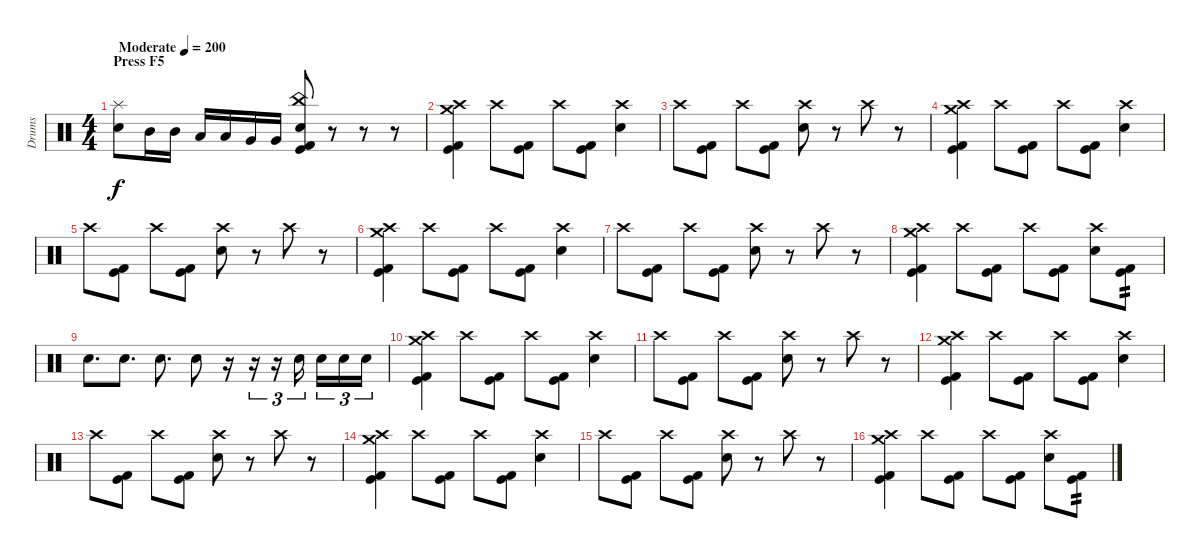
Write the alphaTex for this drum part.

\track ("Drums" "Drums") {instrument percussion}
\staff {score}
\articulation defaults
\ts (4 4)
\section ("" "Press F5")
\tempo (200 "Moderate")
\clef neutral
\ks c
("Splash (hit)" "Electric Snare (hit)").8{dy f} "Mid Tom (hit)".16 "Mid Tom (hit)".16 "Low Tom (hit)".16 "Low Tom (hit)".16 "Very Low Tom (hit)".16 "Very Low Tom (hit)".16 ("China (hit)" "Electric Snare (hit)" "Kick (hit) 2" "Kick (hit)").8 r.8 r.8 r.8 |
("Crash medium (hit)" "Crash high (hit)" "Kick (hit) 2" "Kick (hit)").4 "Crash high (hit)".8 ("Kick (hit) 2" "Kick (hit)").8 "Crash high (hit)".8 ("Kick (hit) 2" "Kick (hit)").8 ("Crash high (hit)" "Electric Snare (hit)").4 |
"Crash high (hit)".8 ("Kick (hit) 2" "Kick (hit)").8 "Crash high (hit)".8 ("Kick (hit) 2" "Kick (hit)").8 ("Crash high (hit)" "Electric Snare (hit)").8 r.8 "Crash high (hit)".8 r.8 |
("Crash medium (hit)" "Crash high (hit)" "Kick (hit) 2" "Kick (hit)").4 "Crash high (hit)".8 ("Kick (hit) 2" "Kick (hit)").8 "Crash high (hit)".8 ("Kick (hit) 2" "Kick (hit)").8 ("Crash high (hit)" "Electric Snare (hit)").4 |
"Crash high (hit)".8 ("Kick (hit) 2" "Kick (hit)").8 "Crash high (hit)".8 ("Kick (hit) 2" "Kick (hit)").8 ("Crash high (hit)" "Electric Snare (hit)").8 r.8 "Crash high (hit)".8 r.8 |
("Crash medium (hit)" "Crash high (hit)" "Kick (hit) 2" "Kick (hit)").4 "Crash high (hit)".8 ("Kick (hit) 2" "Kick (hit)").8 "Crash high (hit)".8 ("Kick (hit) 2" "Kick (hit)").8 ("Crash high (hit)" "Electric Snare (hit)").4 |
"Crash high (hit)".8 ("Kick (hit) 2" "Kick (hit)").8 "Crash high (hit)".8 ("Kick (hit) 2" "Kick (hit)").8 ("Crash high (hit)" "Electric Snare (hit)").8 r.8 "Crash high (hit)".8 r.8 |
("Crash medium (hit)" "Crash high (hit)" "Kick (hit) 2" "Kick (hit)").4 "Crash high (hit)".8 ("Kick (hit) 2" "Kick (hit)").8 "Crash high (hit)".8 ("Kick (hit) 2" "Kick (hit)").8 ("Crash high (hit)" "Electric Snare (hit)").8 ("Kick (hit) 2" "Kick (hit)").8{tp 2} |
"Electric Snare (hit)".8{d} "Electric Snare (hit)".8{d} "Electric Snare (hit)".8{d} "Electric Snare (hit)".8 r.16 r.16{tu (3 2)} r.16{tu (3 2)} "Electric Snare (hit)".16{tu (3 2) beam splitsecondary} "Electric Snare (hit)".16{tu (3 2)} "Electric Snare (hit)".16{tu (3 2)} "Electric Snare (hit)".16{tu (3 2)} |
("Crash medium (hit)" "Crash high (hit)" "Kick (hit) 2" "Kick (hit)").4 "Crash high (hit)".8 ("Kick (hit) 2" "Kick (hit)").8 "Crash high (hit)".8 ("Kick (hit) 2" "Kick (hit)").8 ("Crash high (hit)" "Electric Snare (hit)").4 |
"Crash high (hit)".8 ("Kick (hit) 2" "Kick (hit)").8 "Crash high (hit)".8 ("Kick (hit) 2" "Kick (hit)").8 ("Crash high (hit)" "Electric Snare (hit)").8 r.8 "Crash high (hit)".8 r.8 |
("Crash medium (hit)" "Crash high (hit)" "Kick (hit) 2" "Kick (hit)").4 "Crash high (hit)".8 ("Kick (hit) 2" "Kick (hit)").8 "Crash high (hit)".8 ("Kick (hit) 2" "Kick (hit)").8 ("Crash high (hit)" "Electric Snare (hit)").4 |
"Crash high (hit)".8 ("Kick (hit) 2" "Kick (hit)").8 "Crash high (hit)".8 ("Kick (hit) 2" "Kick (hit)").8 ("Crash high (hit)" "Electric Snare (hit)").8 r.8 "Crash high (hit)".8 r.8 |
("Crash medium (hit)" "Crash high (hit)" "Kick (hit) 2" "Kick (hit)").4 "Crash high (hit)".8 ("Kick (hit) 2" "Kick (hit)").8 "Crash high (hit)".8 ("Kick (hit) 2" "Kick (hit)").8 ("Crash high (hit)" "Electric Snare (hit)").4 |
"Crash high (hit)".8 ("Kick (hit) 2" "Kick (hit)").8 "Crash high (hit)".8 ("Kick (hit) 2" "Kick (hit)").8 ("Crash high (hit)" "Electric Snare (hit)").8 r.8 "Crash high (hit)".8 r.8 |
("Crash medium (hit)" "Crash high (hit)" "Kick (hit) 2" "Kick (hit)").4 "Crash high (hit)".8 ("Kick (hit) 2" "Kick (hit)").8 "Crash high (hit)".8 ("Kick (hit) 2" "Kick (hit)").8 ("Crash high (hit)" "Electric Snare (hit)").8 ("Kick (hit) 2" "Kick (hit)").8{tp 2}
